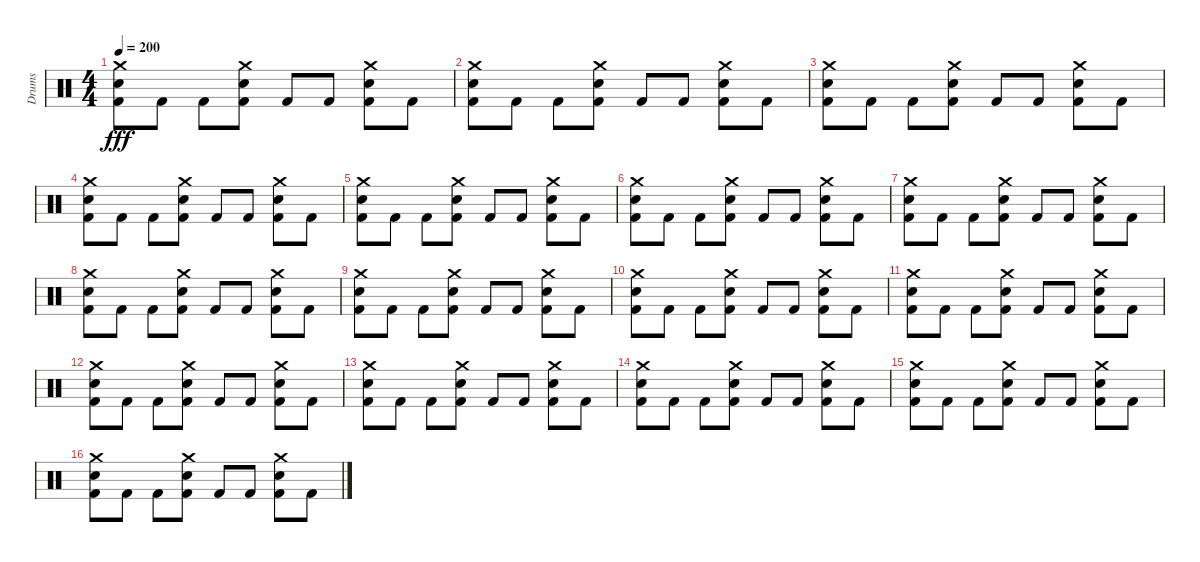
\track ("Drums" "Drums") {instrument percussion}
\staff {score}
\articulation defaults
\ts (4 4)
\tempo 200
\clef neutral
\ks c
("Crash medium (hit)" "Electric Snare (hit)" "Kick (hit) 2").8{dy fff} "Kick (hit) 2".8 "Kick (hit) 2".8 ("Crash medium (hit)" "Electric Snare (hit)" "Kick (hit) 2").8 "Kick (hit) 2".8 "Kick (hit) 2".8 ("Crash medium (hit)" "Electric Snare (hit)" "Kick (hit) 2").8 "Kick (hit) 2".8 |
("Crash medium (hit)" "Electric Snare (hit)" "Kick (hit) 2").8 "Kick (hit) 2".8 "Kick (hit) 2".8 ("Crash medium (hit)" "Electric Snare (hit)" "Kick (hit) 2").8 "Kick (hit) 2".8 "Kick (hit) 2".8 ("Crash medium (hit)" "Electric Snare (hit)" "Kick (hit) 2").8 "Kick (hit) 2".8 |
("Crash medium (hit)" "Electric Snare (hit)" "Kick (hit) 2").8 "Kick (hit) 2".8 "Kick (hit) 2".8 ("Crash medium (hit)" "Electric Snare (hit)" "Kick (hit) 2").8 "Kick (hit) 2".8 "Kick (hit) 2".8 ("Crash medium (hit)" "Electric Snare (hit)" "Kick (hit) 2").8 "Kick (hit) 2".8 |
("Crash medium (hit)" "Electric Snare (hit)" "Kick (hit) 2").8 "Kick (hit) 2".8 "Kick (hit) 2".8 ("Crash medium (hit)" "Electric Snare (hit)" "Kick (hit) 2").8 "Kick (hit) 2".8 "Kick (hit) 2".8 ("Crash medium (hit)" "Electric Snare (hit)" "Kick (hit) 2").8 "Kick (hit) 2".8 |
("Crash medium (hit)" "Electric Snare (hit)" "Kick (hit) 2").8 "Kick (hit) 2".8 "Kick (hit) 2".8 ("Crash medium (hit)" "Electric Snare (hit)" "Kick (hit) 2").8 "Kick (hit) 2".8 "Kick (hit) 2".8 ("Crash medium (hit)" "Electric Snare (hit)" "Kick (hit) 2").8 "Kick (hit) 2".8 |
("Crash medium (hit)" "Electric Snare (hit)" "Kick (hit) 2").8 "Kick (hit) 2".8 "Kick (hit) 2".8 ("Crash medium (hit)" "Electric Snare (hit)" "Kick (hit) 2").8 "Kick (hit) 2".8 "Kick (hit) 2".8 ("Crash medium (hit)" "Electric Snare (hit)" "Kick (hit) 2").8 "Kick (hit) 2".8 |
("Crash medium (hit)" "Electric Snare (hit)" "Kick (hit) 2").8 "Kick (hit) 2".8 "Kick (hit) 2".8 ("Crash medium (hit)" "Electric Snare (hit)" "Kick (hit) 2").8 "Kick (hit) 2".8 "Kick (hit) 2".8 ("Crash medium (hit)" "Electric Snare (hit)" "Kick (hit) 2").8 "Kick (hit) 2".8 |
("Crash medium (hit)" "Electric Snare (hit)" "Kick (hit) 2").8 "Kick (hit) 2".8 "Kick (hit) 2".8 ("Crash medium (hit)" "Electric Snare (hit)" "Kick (hit) 2").8 "Kick (hit) 2".8 "Kick (hit) 2".8 ("Crash medium (hit)" "Electric Snare (hit)" "Kick (hit) 2").8 "Kick (hit) 2".8 |
("Crash medium (hit)" "Electric Snare (hit)" "Kick (hit) 2").8 "Kick (hit) 2".8 "Kick (hit) 2".8 ("Crash medium (hit)" "Electric Snare (hit)" "Kick (hit) 2").8 "Kick (hit) 2".8 "Kick (hit) 2".8 ("Crash medium (hit)" "Electric Snare (hit)" "Kick (hit) 2").8 "Kick (hit) 2".8 |
("Crash medium (hit)" "Electric Snare (hit)" "Kick (hit) 2").8 "Kick (hit) 2".8 "Kick (hit) 2".8 ("Crash medium (hit)" "Electric Snare (hit)" "Kick (hit) 2").8 "Kick (hit) 2".8 "Kick (hit) 2".8 ("Crash medium (hit)" "Electric Snare (hit)" "Kick (hit) 2").8 "Kick (hit) 2".8 |
("Crash medium (hit)" "Electric Snare (hit)" "Kick (hit) 2").8 "Kick (hit) 2".8 "Kick (hit) 2".8 ("Crash medium (hit)" "Electric Snare (hit)" "Kick (hit) 2").8 "Kick (hit) 2".8 "Kick (hit) 2".8 ("Crash medium (hit)" "Electric Snare (hit)" "Kick (hit) 2").8 "Kick (hit) 2".8 |
("Crash medium (hit)" "Electric Snare (hit)" "Kick (hit) 2").8 "Kick (hit) 2".8 "Kick (hit) 2".8 ("Crash medium (hit)" "Electric Snare (hit)" "Kick (hit) 2").8 "Kick (hit) 2".8 "Kick (hit) 2".8 ("Crash medium (hit)" "Electric Snare (hit)" "Kick (hit) 2").8 "Kick (hit) 2".8 |
("Crash medium (hit)" "Electric Snare (hit)" "Kick (hit) 2").8 "Kick (hit) 2".8 "Kick (hit) 2".8 ("Crash medium (hit)" "Electric Snare (hit)" "Kick (hit) 2").8 "Kick (hit) 2".8 "Kick (hit) 2".8 ("Crash medium (hit)" "Electric Snare (hit)" "Kick (hit) 2").8 "Kick (hit) 2".8 |
("Crash medium (hit)" "Electric Snare (hit)" "Kick (hit) 2").8 "Kick (hit) 2".8 "Kick (hit) 2".8 ("Crash medium (hit)" "Electric Snare (hit)" "Kick (hit) 2").8 "Kick (hit) 2".8 "Kick (hit) 2".8 ("Crash medium (hit)" "Electric Snare (hit)" "Kick (hit) 2").8 "Kick (hit) 2".8 |
("Crash medium (hit)" "Electric Snare (hit)" "Kick (hit) 2").8 "Kick (hit) 2".8 "Kick (hit) 2".8 ("Crash medium (hit)" "Electric Snare (hit)" "Kick (hit) 2").8 "Kick (hit) 2".8 "Kick (hit) 2".8 ("Crash medium (hit)" "Electric Snare (hit)" "Kick (hit) 2").8 "Kick (hit) 2".8 |
("Crash medium (hit)" "Electric Snare (hit)" "Kick (hit) 2").8 "Kick (hit) 2".8 "Kick (hit) 2".8 ("Crash medium (hit)" "Electric Snare (hit)" "Kick (hit) 2").8 "Kick (hit) 2".8 "Kick (hit) 2".8 ("Crash medium (hit)" "Electric Snare (hit)" "Kick (hit) 2").8 "Kick (hit) 2".8
